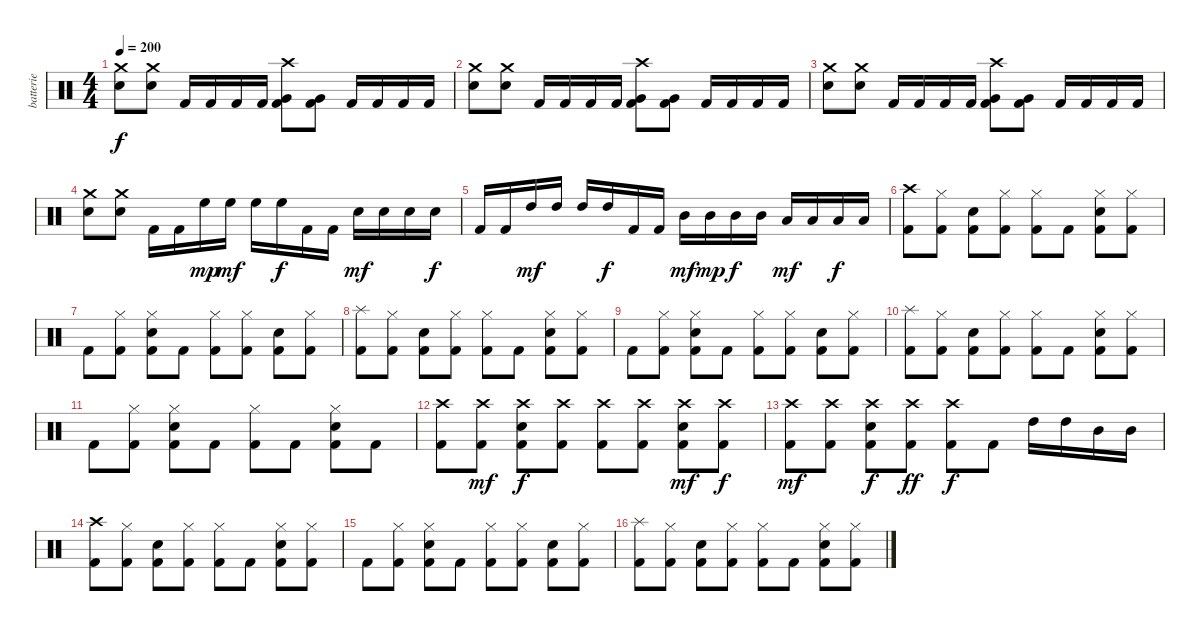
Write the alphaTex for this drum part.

\track ("batterie" "batterie") {instrument percussion}
\staff {score}
\articulation defaults
\ts (4 4)
\tempo 200
\clef neutral
\ks c
("Electric Snare (hit)" "Crash medium (hit)").8{dy f} ("Electric Snare (hit)" "Crash medium (hit)").8 "Kick (hit) 2".16 "Kick (hit) 2".16 "Kick (hit) 2".16 "Kick (hit) 2".16 ("Kick (hit) 2" "Very Low Tom (hit)" "Crash high (hit)").8 ("Kick (hit) 2" "Very Low Tom (hit)").8 "Kick (hit) 2".16 "Kick (hit) 2".16 "Kick (hit) 2".16 "Kick (hit) 2".16 |
("Electric Snare (hit)" "Crash medium (hit)").8 ("Electric Snare (hit)" "Crash medium (hit)").8 "Kick (hit) 2".16 "Kick (hit) 2".16 "Kick (hit) 2".16 "Kick (hit) 2".16 ("Kick (hit) 2" "Very Low Tom (hit)" "Crash high (hit)").8 ("Kick (hit) 2" "Very Low Tom (hit)").8 "Kick (hit) 2".16 "Kick (hit) 2".16 "Kick (hit) 2".16 "Kick (hit) 2".16 |
("Electric Snare (hit)" "Crash medium (hit)").8 ("Electric Snare (hit)" "Crash medium (hit)").8 "Kick (hit) 2".16 "Kick (hit) 2".16 "Kick (hit) 2".16 "Kick (hit) 2".16 ("Kick (hit) 2" "Very Low Tom (hit)" "Crash high (hit)").8 ("Kick (hit) 2" "Very Low Tom (hit)").8 "Kick (hit) 2".16 "Kick (hit) 2".16 "Kick (hit) 2".16 "Kick (hit) 2".16 |
("Electric Snare (hit)" "Crash medium (hit)").8 ("Electric Snare (hit)" "Crash medium (hit)").8 "Kick (hit) 2".16 "Kick (hit) 2".16 "High Floor Tom (hit)".16{dy mp} "High Floor Tom (hit)".16{dy mf} "High Floor Tom (hit)".16 "High Floor Tom (hit)".16{dy f} "Kick (hit) 2".16 "Kick (hit) 2".16 "Electric Snare (hit)".16{dy mf} "Electric Snare (hit)".16 "Electric Snare (hit)".16 "Electric Snare (hit)".16{dy f} |
"Kick (hit) 2".16 "Kick (hit) 2".16 "High Tom (hit)".16{dy mf} "High Tom (hit)".16 "High Tom (hit)".16 "High Tom (hit)".16{dy f} "Kick (hit) 2".16 "Kick (hit) 2".16 "Mid Tom (hit)".16{dy mf} "Mid Tom (hit)".16{dy mp} "Mid Tom (hit)".16{dy f} "Mid Tom (hit)".16 "Low Tom (hit)".16{dy mf} "Low Tom (hit)".16 "Low Tom (hit)".16{dy f} "Low Tom (hit)".16 |
("Kick (hit) 2" "Crash high (hit)").8 ("Kick (hit) 2" "Hi-Hat (closed)").8 ("Kick (hit) 2" "Electric Snare (hit)").8 ("Kick (hit) 2" "Hi-Hat (closed)").8 ("Kick (hit) 2" "Hi-Hat (closed)").8 "Kick (hit) 2".8 ("Kick (hit) 2" "Electric Snare (hit)" "Hi-Hat (closed)").8 ("Kick (hit) 2" "Hi-Hat (closed)").8 |
"Kick (hit) 2".8 ("Kick (hit) 2" "Hi-Hat (closed)").8 ("Kick (hit) 2" "Electric Snare (hit)" "Hi-Hat (closed)").8 "Kick (hit) 2".8 ("Kick (hit) 2" "Hi-Hat (closed)").8 ("Kick (hit) 2" "Hi-Hat (closed)").8 ("Kick (hit) 2" "Electric Snare (hit)").8 ("Kick (hit) 2" "Hi-Hat (closed)").8 |
("Kick (hit) 2" "Splash (hit)").8 ("Kick (hit) 2" "Hi-Hat (closed)").8 ("Kick (hit) 2" "Electric Snare (hit)").8 ("Kick (hit) 2" "Hi-Hat (closed)").8 ("Kick (hit) 2" "Hi-Hat (closed)").8 "Kick (hit) 2".8 ("Kick (hit) 2" "Electric Snare (hit)" "Hi-Hat (closed)").8 ("Kick (hit) 2" "Hi-Hat (closed)").8 |
"Kick (hit) 2".8 ("Kick (hit) 2" "Hi-Hat (closed)").8 ("Kick (hit) 2" "Electric Snare (hit)" "Hi-Hat (closed)").8 "Kick (hit) 2".8 ("Kick (hit) 2" "Hi-Hat (closed)").8 ("Kick (hit) 2" "Hi-Hat (closed)").8 ("Kick (hit) 2" "Electric Snare (hit)").8 ("Kick (hit) 2" "Hi-Hat (closed)").8 |
("Kick (hit) 2" "Splash (hit)").8 ("Kick (hit) 2" "Hi-Hat (closed)").8 ("Kick (hit) 2" "Electric Snare (hit)").8 ("Kick (hit) 2" "Hi-Hat (closed)").8 ("Kick (hit) 2" "Hi-Hat (closed)").8 "Kick (hit) 2".8 ("Kick (hit) 2" "Electric Snare (hit)" "Hi-Hat (closed)").8 ("Kick (hit) 2" "Hi-Hat (closed)").8 |
"Kick (hit) 2".8 ("Kick (hit) 2" "Hi-Hat (closed)").8 ("Kick (hit) 2" "Electric Snare (hit)" "Hi-Hat (closed)").8 "Kick (hit) 2".8 ("Kick (hit) 2" "Hi-Hat (closed)").8 "Kick (hit) 2".8 ("Kick (hit) 2" "Electric Snare (hit)" "Hi-Hat (closed)").8 "Kick (hit) 2".8 |
("Kick (hit) 2" "Crash high (hit)").8 ("Kick (hit) 2" "Crash high (hit)").8{dy mf} ("Kick (hit) 2" "Electric Snare (hit)" "Crash high (hit)").8{dy f} ("Kick (hit) 2" "Crash high (hit)").8 ("Kick (hit) 2" "Crash high (hit)").8 ("Kick (hit) 2" "Crash high (hit)").8 ("Kick (hit) 2" "Electric Snare (hit)" "Crash high (hit)").8{dy mf} ("Kick (hit) 2" "Crash high (hit)").8{dy f} |
("Kick (hit) 2" "Crash high (hit)").8{dy mf} ("Kick (hit) 2" "Crash high (hit)").8 ("Kick (hit) 2" "Electric Snare (hit)" "Crash high (hit)").8{dy f} ("Kick (hit) 2" "Crash high (hit)").8{dy ff} ("Kick (hit) 2" "Crash high (hit)").8{dy f} "Kick (hit) 2".8 "High Tom (hit)".16 "High Tom (hit)".16 "Mid Tom (hit)".16 "Mid Tom (hit)".16 |
("Kick (hit) 2" "Crash high (hit)").8 ("Kick (hit) 2" "Hi-Hat (closed)").8 ("Kick (hit) 2" "Electric Snare (hit)").8 ("Kick (hit) 2" "Hi-Hat (closed)").8 ("Kick (hit) 2" "Hi-Hat (closed)").8 "Kick (hit) 2".8 ("Kick (hit) 2" "Electric Snare (hit)" "Hi-Hat (closed)").8 ("Kick (hit) 2" "Hi-Hat (closed)").8 |
"Kick (hit) 2".8 ("Kick (hit) 2" "Hi-Hat (closed)").8 ("Kick (hit) 2" "Electric Snare (hit)" "Hi-Hat (closed)").8 "Kick (hit) 2".8 ("Kick (hit) 2" "Hi-Hat (closed)").8 ("Kick (hit) 2" "Hi-Hat (closed)").8 ("Kick (hit) 2" "Electric Snare (hit)").8 ("Kick (hit) 2" "Hi-Hat (closed)").8 |
("Kick (hit) 2" "Splash (hit)").8 ("Kick (hit) 2" "Hi-Hat (closed)").8 ("Kick (hit) 2" "Electric Snare (hit)").8 ("Kick (hit) 2" "Hi-Hat (closed)").8 ("Kick (hit) 2" "Hi-Hat (closed)").8 "Kick (hit) 2".8 ("Kick (hit) 2" "Electric Snare (hit)" "Hi-Hat (closed)").8 ("Kick (hit) 2" "Hi-Hat (closed)").8
